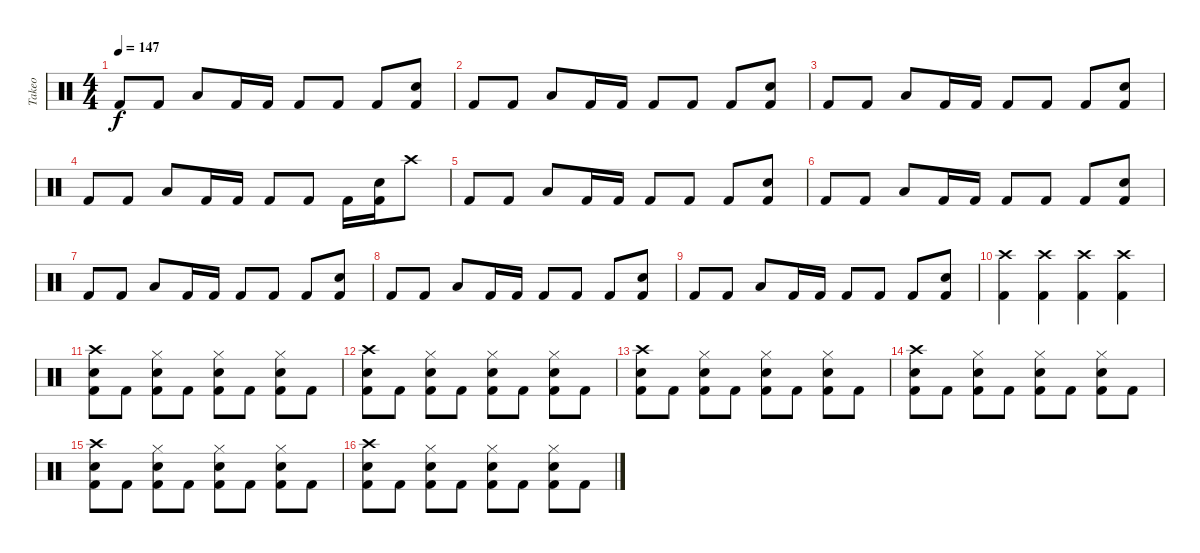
\track ("Takeo" "Takeo") {instrument percussion}
\staff {score}
\articulation defaults
\ts (4 4)
\tempo 147
\clef neutral
\ks c "Kick (hit) 2".8{dy f} "Kick (hit) 2".8 "Low Tom (hit)".8 "Kick (hit) 2".16 "Kick (hit) 2".16 "Kick (hit) 2".8 "Kick (hit) 2".8 "Kick (hit) 2".8
("Kick (hit) 2" "Snare (hit) 2").8 |
"Kick (hit) 2".8 "Kick (hit) 2".8 "Low Tom (hit)".8 "Kick (hit) 2".16 "Kick (hit) 2".16 "Kick (hit) 2".8 "Kick (hit) 2".8 "Kick (hit) 2".8 ("Kick (hit) 2" "Snare (hit) 2").8 |
"Kick (hit) 2".8 "Kick (hit) 2".8 "Low Tom (hit)".8 "Kick (hit) 2".16 "Kick (hit) 2".16 "Kick (hit) 2".8 "Kick (hit) 2".8 "Kick (hit) 2".8 ("Kick (hit) 2" "Snare (hit) 2").8 |
"Kick (hit) 2".8 "Kick (hit) 2".8 "Low Tom (hit)".8 "Kick (hit) 2".16 "Kick (hit) 2".16 "Kick (hit) 2".8 "Kick (hit) 2".8 "Kick (hit) 2".16 ("Kick (hit) 2" "Snare (hit) 2").16 "Crash high (hit)".8 |
"Kick (hit) 2".8 "Kick (hit) 2".8 "Low Tom (hit)".8 "Kick (hit) 2".16 "Kick (hit) 2".16 "Kick (hit) 2".8 "Kick (hit) 2".8 "Kick (hit) 2".8 ("Kick (hit) 2" "Snare (hit) 2").8 |
"Kick (hit) 2".8 "Kick (hit) 2".8 "Low Tom (hit)".8 "Kick (hit) 2".16 "Kick (hit) 2".16 "Kick (hit) 2".8 "Kick (hit) 2".8 "Kick (hit) 2".8 ("Kick (hit) 2" "Snare (hit) 2").8 |
"Kick (hit) 2".8 "Kick (hit) 2".8 "Low Tom (hit)".8 "Kick (hit) 2".16 "Kick (hit) 2".16 "Kick (hit) 2".8 "Kick (hit) 2".8 "Kick (hit) 2".8 ("Kick (hit) 2" "Snare (hit) 2").8 |
"Kick (hit) 2".8 "Kick (hit) 2".8 "Low Tom (hit)".8 "Kick (hit) 2".16 "Kick (hit) 2".16 "Kick (hit) 2".8 "Kick (hit) 2".8 "Kick (hit) 2".8 ("Kick (hit) 2" "Snare (hit) 2").8 |
"Kick (hit) 2".8 "Kick (hit) 2".8 "Low Tom (hit)".8 "Kick (hit) 2".16 "Kick (hit) 2".16 "Kick (hit) 2".8 "Kick (hit) 2".8 "Kick (hit) 2".8 ("Kick (hit) 2" "Snare (hit) 2").8 |
("Kick (hit) 2" "Crash high (hit)").4 ("Kick (hit) 2" "Crash high (hit)").4 ("Kick (hit) 2" "Crash high (hit)").4 ("Kick (hit) 2" "Crash high (hit)").4 |
("Kick (hit) 2" "Snare (hit) 2" "Crash high (hit)").8 "Kick (hit) 2".8 ("Kick (hit) 2" "Snare (hit) 2" "Hi-Hat (closed)").8 "Kick (hit) 2".8 ("Kick (hit) 2" "Snare (hit) 2" "Hi-Hat (closed)").8 "Kick (hit) 2".8 ("Kick (hit) 2" "Snare (hit) 2" "Hi-Hat (closed)").8 "Kick (hit) 2".8 |
("Kick (hit) 2" "Snare (hit) 2" "Crash high (hit)").8 "Kick (hit) 2".8 ("Kick (hit) 2" "Snare (hit) 2" "Hi-Hat (closed)").8 "Kick (hit) 2".8 ("Kick (hit) 2" "Snare (hit) 2" "Hi-Hat (closed)").8 "Kick (hit) 2".8 ("Kick (hit) 2" "Snare (hit) 2" "Hi-Hat (closed)").8 "Kick (hit) 2".8 |
("Kick (hit) 2" "Snare (hit) 2" "Crash high (hit)").8 "Kick (hit) 2".8 ("Kick (hit) 2" "Snare (hit) 2" "Hi-Hat (closed)").8 "Kick (hit) 2".8 ("Kick (hit) 2" "Snare (hit) 2" "Hi-Hat (closed)").8 "Kick (hit) 2".8 ("Kick (hit) 2" "Snare (hit) 2" "Hi-Hat (closed)").8 "Kick (hit) 2".8 |
("Kick (hit) 2" "Snare (hit) 2" "Crash high (hit)").8 "Kick (hit) 2".8 ("Kick (hit) 2" "Snare (hit) 2" "Hi-Hat (closed)").8 "Kick (hit) 2".8 ("Kick (hit) 2" "Snare (hit) 2" "Hi-Hat (closed)").8 "Kick (hit) 2".8 ("Kick (hit) 2" "Snare (hit) 2" "Hi-Hat (closed)").8 "Kick (hit) 2".8 |
("Kick (hit) 2" "Snare (hit) 2" "Crash high (hit)").8 "Kick (hit) 2".8 ("Kick (hit) 2" "Snare (hit) 2" "Hi-Hat (closed)").8 "Kick (hit) 2".8 ("Kick (hit) 2" "Snare (hit) 2" "Hi-Hat (closed)").8 "Kick (hit) 2".8 ("Kick (hit) 2" "Snare (hit) 2" "Hi-Hat (closed)").8 "Kick (hit) 2".8 |
("Kick (hit) 2" "Snare (hit) 2" "Crash high (hit)").8 "Kick (hit) 2".8 ("Kick (hit) 2" "Snare (hit) 2" "Hi-Hat (closed)").8 "Kick (hit) 2".8 ("Kick (hit) 2" "Snare (hit) 2" "Hi-Hat (closed)").8 "Kick (hit) 2".8 ("Kick (hit) 2" "Snare (hit) 2" "Hi-Hat (closed)").8 "Kick (hit) 2".8
